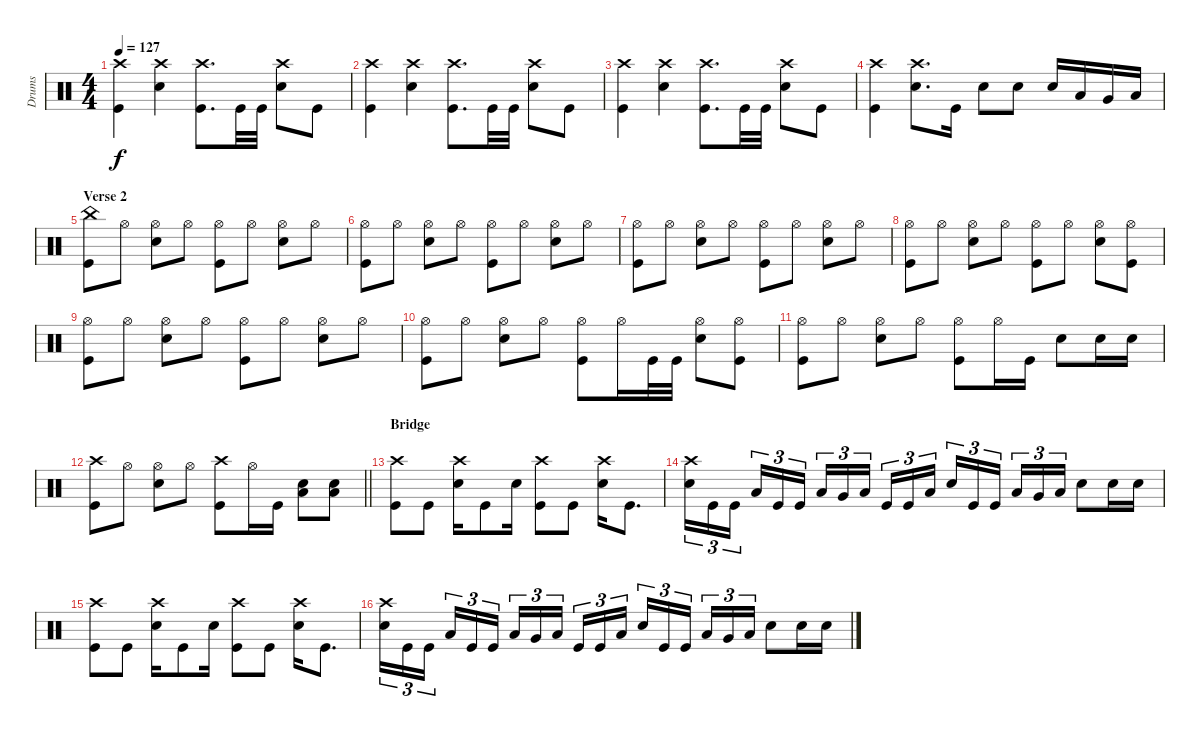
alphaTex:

\track ("Drums" "Drums") {instrument percussion}
\staff {score}
\articulation defaults
\ts (4 4)
\tempo 127
\clef neutral
\ks c
("Kick (hit)" "Crash high (hit)").4{dy f} ("Snare (hit) 2" "Crash high (hit)").4 ("Kick (hit)" "Crash high (hit)").8{d} "Kick (hit)".32 "Kick (hit)".32 ("Snare (hit) 2" "Crash high (hit)").8 "Kick (hit)".8 |
("Kick (hit)" "Crash high (hit)").4 ("Snare (hit) 2" "Crash high (hit)").4 ("Kick (hit)" "Crash high (hit)").8{d} "Kick (hit)".32 "Kick (hit)".32 ("Snare (hit) 2" "Crash high (hit)").8 "Kick (hit)".8 |
("Kick (hit)" "Crash high (hit)").4 ("Snare (hit) 2" "Crash high (hit)").4 ("Kick (hit)" "Crash high (hit)").8{d} "Kick (hit)".32 "Kick (hit)".32 ("Snare (hit) 2" "Crash high (hit)").8 "Kick (hit)".8 |
("Kick (hit)" "Crash high (hit)").4 ("Snare (hit) 2" "Crash high (hit)").8{d} "Kick (hit)".16 "Snare (hit) 2".8 "Snare (hit) 2".8 "Snare (hit) 2".16 "Low Tom (hit)".16 "Very Low Tom (hit)".16 "Low Floor Tom (hit)".16 |
\section ("" "Verse 2")
("China (hit)" "Kick (hit)").8 "Hi-Hat (open)".8 ("Snare (hit) 2" "Hi-Hat (open)").8 "Hi-Hat (open)".8 ("Kick (hit)" "Hi-Hat (open)").8 "Hi-Hat (open)".8 ("Snare (hit) 2" "Hi-Hat (open)").8 "Hi-Hat (open)".8 |
("Kick (hit)" "Hi-Hat (open)").8 "Hi-Hat (open)".8 ("Snare (hit) 2" "Hi-Hat (open)").8 "Hi-Hat (open)".8 ("Kick (hit)" "Hi-Hat (open)").8 "Hi-Hat (open)".8 ("Snare (hit) 2" "Hi-Hat (open)").8 "Hi-Hat (open)".8 |
("Kick (hit)" "Hi-Hat (open)").8 "Hi-Hat (open)".8 ("Snare (hit) 2" "Hi-Hat (open)").8 "Hi-Hat (open)".8 ("Kick (hit)" "Hi-Hat (open)").8 "Hi-Hat (open)".8 ("Snare (hit) 2" "Hi-Hat (open)").8 "Hi-Hat (open)".8 |
("Kick (hit)" "Hi-Hat (open)").8 "Hi-Hat (open)".8 ("Snare (hit) 2" "Hi-Hat (open)").8 "Hi-Hat (open)".8 ("Kick (hit)" "Hi-Hat (open)").8 "Hi-Hat (open)".8 ("Snare (hit) 2" "Hi-Hat (open)").8 ("Hi-Hat (open)" "Kick (hit)").8 |
("Kick (hit)" "Hi-Hat (open)").8 "Hi-Hat (open)".8 ("Snare (hit) 2" "Hi-Hat (open)").8 "Hi-Hat (open)".8 ("Kick (hit)" "Hi-Hat (open)").8 "Hi-Hat (open)".8 ("Snare (hit) 2" "Hi-Hat (open)").8 "Hi-Hat (open)".8 |
("Kick (hit)" "Hi-Hat (open)").8 "Hi-Hat (open)".8 ("Snare (hit) 2" "Hi-Hat (open)").8 "Hi-Hat (open)".8 ("Kick (hit)" "Hi-Hat (open)").8 "Hi-Hat (open)".16 "Kick (hit)".32 "Kick (hit)".32 ("Snare (hit) 2" "Hi-Hat (open)").8 ("Hi-Hat (open)" "Kick (hit)").8 |
("Kick (hit)" "Hi-Hat (open)").8 "Hi-Hat (open)".8 ("Snare (hit) 2" "Hi-Hat (open)").8 "Hi-Hat (open)".8 ("Kick (hit)" "Hi-Hat (open)").8 "Hi-Hat (open)".16 "Kick (hit)".16 "Snare (hit) 2".8 "Snare (hit) 2".16 "Snare (hit) 2".16 |
\barLineRight lightlight
("Kick (hit)" "Crash high (hit)").8 "Hi-Hat (open)".8 ("Snare (hit) 2" "Hi-Hat (open)").8 "Hi-Hat (open)".8 ("Kick (hit)" "Crash high (hit)").8 "Hi-Hat (open)".16 "Kick (hit)".16 ("Snare (hit) 2" "Low Tom (hit)").8 ("Snare (hit) 2" "Low Tom (hit)").8 |
\section ("" "Bridge")
("Kick (hit)" "Crash high (hit)").8 "Kick (hit)".8 ("Snare (hit) 2" "Crash high (hit)").16 "Kick (hit)".8 "Snare (hit) 2".16 ("Kick (hit)" "Crash high (hit)").8 "Kick (hit)".8 ("Snare (hit) 2" "Crash high (hit)").16 "Kick (hit)".8{d} |
("Snare (hit) 2" "Crash high (hit)").16{tu (3 2)} "Kick (hit)".16{tu (3 2)} "Kick (hit)".16{tu (3 2) beam splitsecondary} "Low Tom (hit)".16{tu (3 2)} "Kick (hit)".16{tu (3 2)} "Kick (hit)".16{tu (3 2)} "Low Tom (hit)".16{tu (3 2)} "Very Low Tom (hit)".16{tu (3 2)} "Low Floor Tom (hit)".16{tu (3 2) beam splitsecondary} "Kick (hit)".16{tu (3 2)} "Kick (hit)".16{tu (3 2)} "Low Tom (hit)".16{tu (3 2)} "Snare (hit) 2".16{tu (3 2)} "Kick (hit)".16{tu (3 2)} "Kick (hit)".16{tu (3 2) beam splitsecondary} "Low Tom (hit)".16{tu (3 2)} "Very Low Tom (hit)".16{tu (3 2)} "Low Floor Tom (hit)".16{tu (3 2)} "Snare (hit) 2".8 "Snare (hit) 2".16 "Snare (hit) 2".16 |
("Kick (hit)" "Crash high (hit)").8 "Kick (hit)".8 ("Snare (hit) 2" "Crash high (hit)").16 "Kick (hit)".8 "Snare (hit) 2".16 ("Kick (hit)" "Crash high (hit)").8 "Kick (hit)".8 ("Snare (hit) 2" "Crash high (hit)").16 "Kick (hit)".8{d} |
("Snare (hit) 2" "Crash high (hit)").16{tu (3 2)} "Kick (hit)".16{tu (3 2)} "Kick (hit)".16{tu (3 2) beam splitsecondary} "Low Tom (hit)".16{tu (3 2)} "Kick (hit)".16{tu (3 2)} "Kick (hit)".16{tu (3 2)} "Low Tom (hit)".16{tu (3 2)} "Very Low Tom (hit)".16{tu (3 2)} "Low Floor Tom (hit)".16{tu (3 2) beam splitsecondary} "Kick (hit)".16{tu (3 2)} "Kick (hit)".16{tu (3 2)} "Low Tom (hit)".16{tu (3 2)} "Snare (hit) 2".16{tu (3 2)} "Kick (hit)".16{tu (3 2)} "Kick (hit)".16{tu (3 2) beam splitsecondary} "Low Tom (hit)".16{tu (3 2)} "Very Low Tom (hit)".16{tu (3 2)} "Low Floor Tom (hit)".16{tu (3 2)} "Snare (hit) 2".8 "Snare (hit) 2".16 "Snare (hit) 2".16
